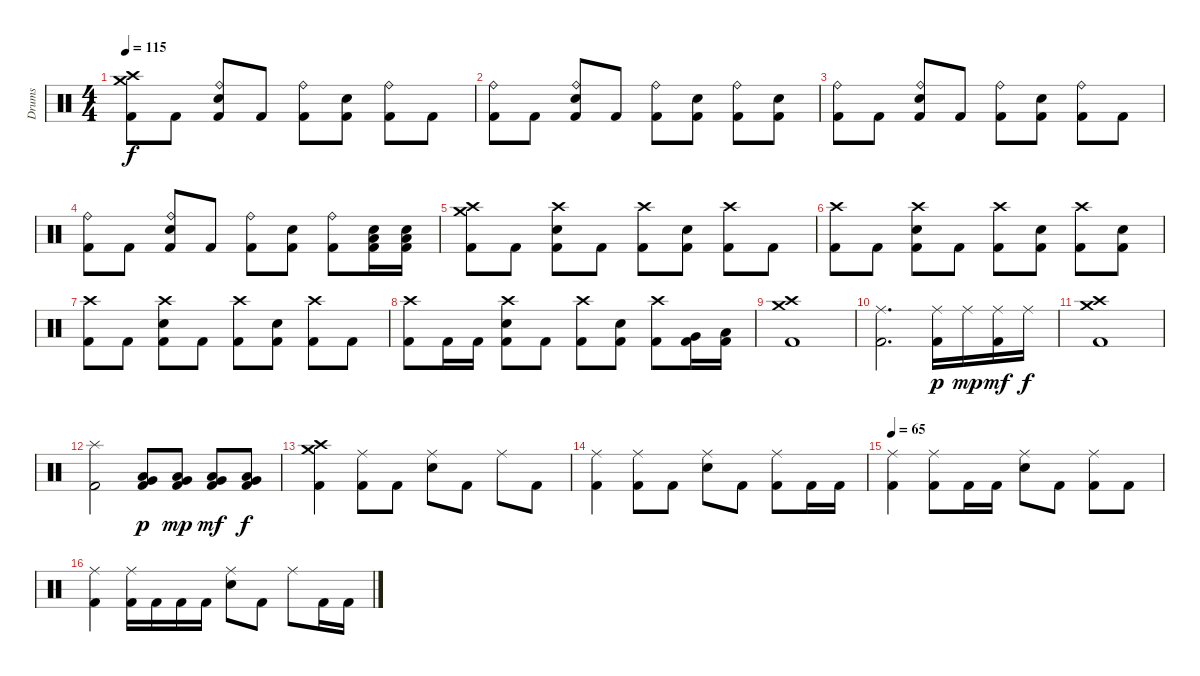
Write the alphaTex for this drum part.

\track ("Drums" "Drums") {instrument percussion}
\staff {score}
\articulation defaults
\ts (4 4)
\tempo 115
\clef neutral
\ks c
("Crash medium (hit)" "Crash high (hit)" "Kick (hit) 2").8{dy f} "Kick (hit) 2".8 ("Ride (bell)" "Electric Snare (hit)" "Kick (hit) 2").8 "Kick (hit) 2".8 ("Ride (bell)" "Kick (hit) 2").8 ("Electric Snare (hit)" "Kick (hit) 2").8 ("Ride (bell)" "Kick (hit) 2").8 "Kick (hit) 2".8 |
("Ride (bell)" "Kick (hit) 2").8 "Kick (hit) 2".8 ("Ride (bell)" "Electric Snare (hit)" "Kick (hit) 2").8 "Kick (hit) 2".8 ("Ride (bell)" "Kick (hit) 2").8 ("Electric Snare (hit)" "Kick (hit) 2").8 ("Ride (bell)" "Kick (hit) 2").8 ("Electric Snare (hit)" "Kick (hit) 2").8 |
("Ride (bell)" "Kick (hit) 2").8 "Kick (hit) 2".8 ("Ride (bell)" "Electric Snare (hit)" "Kick (hit) 2").8 "Kick (hit) 2".8 ("Ride (bell)" "Kick (hit) 2").8 ("Electric Snare (hit)" "Kick (hit) 2").8 ("Ride (bell)" "Kick (hit) 2").8 "Kick (hit) 2".8 |
("Ride (bell)" "Kick (hit) 2").8 "Kick (hit) 2".8 ("Ride (bell)" "Electric Snare (hit)" "Kick (hit) 2").8 "Kick (hit) 2".8 ("Ride (bell)" "Kick (hit) 2").8 ("Electric Snare (hit)" "Kick (hit) 2").8 ("Ride (bell)" "Kick (hit) 2").8 ("Low Floor Tom (hit)" "Electric Snare (hit)" "Kick (hit) 2").16 ("Low Floor Tom (hit)" "Electric Snare (hit)" "Kick (hit) 2").16 |
("Crash medium (hit)" "Crash high (hit)" "Kick (hit) 2").8 "Kick (hit) 2".8 ("Crash high (hit)" "Electric Snare (hit)" "Kick (hit) 2").8 "Kick (hit) 2".8 ("Crash high (hit)" "Kick (hit) 2").8 ("Electric Snare (hit)" "Kick (hit) 2").8 ("Crash high (hit)" "Kick (hit) 2").8 "Kick (hit) 2".8 |
("Crash high (hit)" "Kick (hit) 2").8 "Kick (hit) 2".8 ("Crash high (hit)" "Electric Snare (hit)" "Kick (hit) 2").8 "Kick (hit) 2".8 ("Crash high (hit)" "Kick (hit) 2").8 ("Electric Snare (hit)" "Kick (hit) 2").8 ("Crash high (hit)" "Kick (hit) 2").8 ("Electric Snare (hit)" "Kick (hit) 2").8 |
("Crash high (hit)" "Kick (hit) 2").8 "Kick (hit) 2".8 ("Crash high (hit)" "Electric Snare (hit)" "Kick (hit) 2").8 "Kick (hit) 2".8 ("Crash high (hit)" "Kick (hit) 2").8 ("Electric Snare (hit)" "Kick (hit) 2").8 ("Crash high (hit)" "Kick (hit) 2").8 "Kick (hit) 2".8 |
("Crash high (hit)" "Kick (hit) 2").8 "Kick (hit) 2".16 "Kick (hit) 2".16 ("Crash high (hit)" "Electric Snare (hit)" "Kick (hit) 2").8 "Kick (hit) 2".8 ("Crash high (hit)" "Kick (hit) 2").8 ("Electric Snare (hit)" "Kick (hit) 2").8 ("Crash high (hit)" "Kick (hit) 2").8 ("Very Low Tom (hit)" "Kick (hit) 2").16 ("Low Floor Tom (hit)" "Kick (hit) 2").16 |
("Crash medium (hit)" "Crash high (hit)" "Kick (hit) 2").1 |
("Ride (middle)" "Kick (hit) 2").2{d} ("Ride (middle)" "Kick (hit) 2").16{dy p} "Ride (middle)".16{dy mp} ("Ride (middle)" "Kick (hit) 2").16{dy mf} "Ride (middle)".16{dy f} |
("Crash medium (hit)" "Crash high (hit)" "Kick (hit) 2").1 |
("Splash (hit)" "Kick (hit) 2").2 ("Low Floor Tom (hit)" "Very Low Tom (hit)" "Kick (hit) 2").8{dy p} ("Low Floor Tom (hit)" "Very Low Tom (hit)" "Kick (hit) 2").8{dy mp} ("Low Floor Tom (hit)" "Very Low Tom (hit)" "Kick (hit) 2").8{dy mf} ("Low Floor Tom (hit)" "Very Low Tom (hit)" "Kick (hit) 2").8{dy f} |
("Crash medium (hit)" "Crash high (hit)" "Kick (hit) 2").4 ("Ride (middle)" "Kick (hit) 2").8 "Kick (hit) 2".8 ("Ride (middle)" "Electric Snare (hit)").8 "Kick (hit) 2".8 "Ride (middle)".8 "Kick (hit) 2".8 |
("Ride (middle)" "Kick (hit) 2").4 ("Ride (middle)" "Kick (hit) 2").8 "Kick (hit) 2".8 ("Ride (middle)" "Electric Snare (hit)").8 "Kick (hit) 2".8 ("Ride (middle)" "Kick (hit) 2").8 "Kick (hit) 2".16 "Kick (hit) 2".16 |
\tempo 65
("Ride (middle)" "Kick (hit) 2").4 ("Ride (middle)" "Kick (hit) 2").8 "Kick (hit) 2".16 "Kick (hit) 2".16 ("Ride (middle)" "Electric Snare (hit)").8 "Kick (hit) 2".8 ("Ride (middle)" "Kick (hit) 2").8 "Kick (hit) 2".8 |
("Ride (middle)" "Kick (hit) 2").4 ("Ride (middle)" "Kick (hit) 2").16 "Kick (hit) 2".16 "Kick (hit) 2".16 "Kick (hit) 2".16 ("Ride (middle)" "Electric Snare (hit)").8 "Kick (hit) 2".8 "Ride (middle)".8 "Kick (hit) 2".16 "Kick (hit) 2".16
